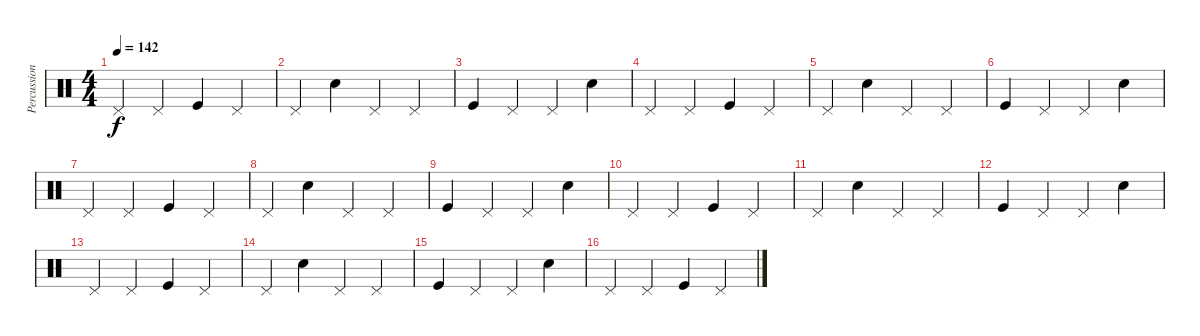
\track ("Percussion" "Percussion") {instrument percussion}
\staff {score}
\articulation defaults
\ts (4 4)
\tempo 142
\clef neutral
\ks c "Pedal Hi-Hat (hit)".4{dy f} "Pedal Hi-Hat (hit)".4 "Kick (hit)".4 "Pedal Hi-Hat (hit)".4
|
"Pedal Hi-Hat (hit)".4 "Electric Snare (hit)".4 "Pedal Hi-Hat (hit)".4 "Pedal Hi-Hat (hit)".4 |
"Kick (hit)".4 "Pedal Hi-Hat (hit)".4 "Pedal Hi-Hat (hit)".4 "Electric Snare (hit)".4 |
"Pedal Hi-Hat (hit)".4 "Pedal Hi-Hat (hit)".4 "Kick (hit)".4 "Pedal Hi-Hat (hit)".4 |
"Pedal Hi-Hat (hit)".4 "Electric Snare (hit)".4 "Pedal Hi-Hat (hit)".4 "Pedal Hi-Hat (hit)".4 |
"Kick (hit)".4 "Pedal Hi-Hat (hit)".4 "Pedal Hi-Hat (hit)".4 "Electric Snare (hit)".4 |
"Pedal Hi-Hat (hit)".4 "Pedal Hi-Hat (hit)".4 "Kick (hit)".4 "Pedal Hi-Hat (hit)".4 |
"Pedal Hi-Hat (hit)".4 "Electric Snare (hit)".4 "Pedal Hi-Hat (hit)".4 "Pedal Hi-Hat (hit)".4 |
"Kick (hit)".4 "Pedal Hi-Hat (hit)".4 "Pedal Hi-Hat (hit)".4 "Electric Snare (hit)".4 |
"Pedal Hi-Hat (hit)".4 "Pedal Hi-Hat (hit)".4 "Kick (hit)".4 "Pedal Hi-Hat (hit)".4 |
"Pedal Hi-Hat (hit)".4 "Electric Snare (hit)".4 "Pedal Hi-Hat (hit)".4 "Pedal Hi-Hat (hit)".4 |
"Kick (hit)".4 "Pedal Hi-Hat (hit)".4 "Pedal Hi-Hat (hit)".4 "Electric Snare (hit)".4 |
"Pedal Hi-Hat (hit)".4 "Pedal Hi-Hat (hit)".4 "Kick (hit)".4 "Pedal Hi-Hat (hit)".4 |
"Pedal Hi-Hat (hit)".4 "Electric Snare (hit)".4 "Pedal Hi-Hat (hit)".4 "Pedal Hi-Hat (hit)".4 |
"Kick (hit)".4 "Pedal Hi-Hat (hit)".4 "Pedal Hi-Hat (hit)".4 "Electric Snare (hit)".4 |
"Pedal Hi-Hat (hit)".4 "Pedal Hi-Hat (hit)".4 "Kick (hit)".4 "Pedal Hi-Hat (hit)".4
